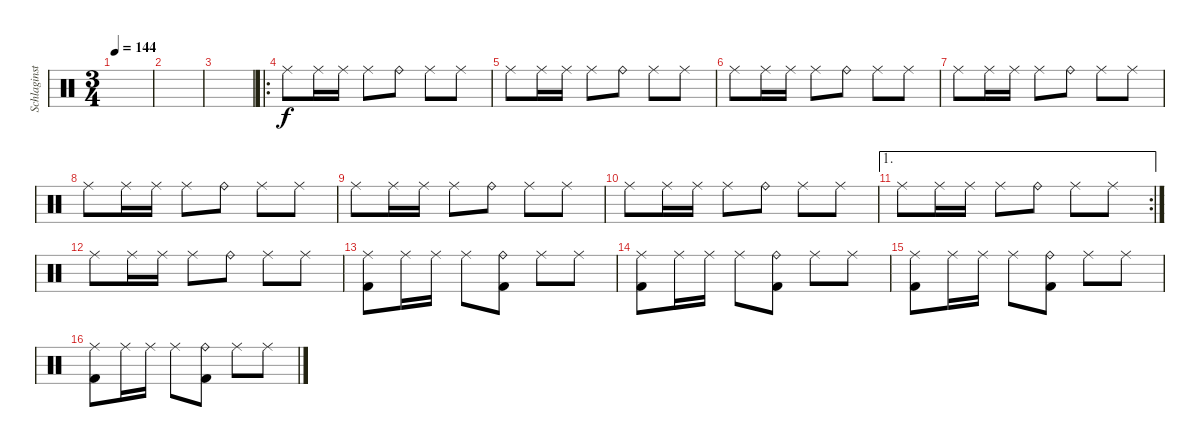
\track ("Schlaginstrumente - Auswahl" "Schlaginst") {instrument percussion}
\staff {score}
\articulation defaults
\ts (3 4)
\tempo 144
\clef neutral
\ks c
|
|
|
\ro "Ride (middle)".8 "Ride (middle)".16 "Ride (middle)".16 "Ride (middle)".8 "Ride (bell)".8 "Ride (middle)".8 "Ride (middle)".8
|
"Ride (middle)".8 "Ride (middle)".16 "Ride (middle)".16 "Ride (middle)".8 "Ride (bell)".8 "Ride (middle)".8 "Ride (middle)".8 |
"Ride (middle)".8 "Ride (middle)".16 "Ride (middle)".16 "Ride (middle)".8 "Ride (bell)".8 "Ride (middle)".8 "Ride (middle)".8 |
"Ride (middle)".8 "Ride (middle)".16 "Ride (middle)".16 "Ride (middle)".8 "Ride (bell)".8 "Ride (middle)".8 "Ride (middle)".8 |
"Ride (middle)".8 "Ride (middle)".16 "Ride (middle)".16 "Ride (middle)".8 "Ride (bell)".8 "Ride (middle)".8 "Ride (middle)".8 |
"Ride (middle)".8 "Ride (middle)".16 "Ride (middle)".16 "Ride (middle)".8 "Ride (bell)".8 "Ride (middle)".8 "Ride (middle)".8 |
"Ride (middle)".8 "Ride (middle)".16 "Ride (middle)".16 "Ride (middle)".8 "Ride (bell)".8 "Ride (middle)".8 "Ride (middle)".8 |
\ae 1
\rc 2 "Ride (middle)".8 "Ride (middle)".16 "Ride (middle)".16 "Ride (middle)".8 "Ride (bell)".8 "Ride (middle)".8 "Ride (middle)".8
|
"Ride (middle)".8 "Ride (middle)".16 "Ride (middle)".16 "Ride (middle)".8 "Ride (bell)".8 "Ride (middle)".8 "Ride (middle)".8 |
("Ride (middle)" "Kick (hit) 2").8 "Ride (middle)".16 "Ride (middle)".16 "Ride (middle)".8 ("Ride (bell)" "Kick (hit) 2").8 "Ride (middle)".8 "Ride (middle)".8 |
("Ride (middle)" "Kick (hit) 2").8 "Ride (middle)".16 "Ride (middle)".16 "Ride (middle)".8 ("Ride (bell)" "Kick (hit) 2").8 "Ride (middle)".8 "Ride (middle)".8 |
("Ride (middle)" "Kick (hit) 2").8 "Ride (middle)".16 "Ride (middle)".16 "Ride (middle)".8 ("Ride (bell)" "Kick (hit) 2").8 "Ride (middle)".8 "Ride (middle)".8 |
("Ride (middle)" "Kick (hit) 2").8 "Ride (middle)".16 "Ride (middle)".16 "Ride (middle)".8 ("Ride (bell)" "Kick (hit) 2").8 "Ride (middle)".8 "Ride (middle)".8
